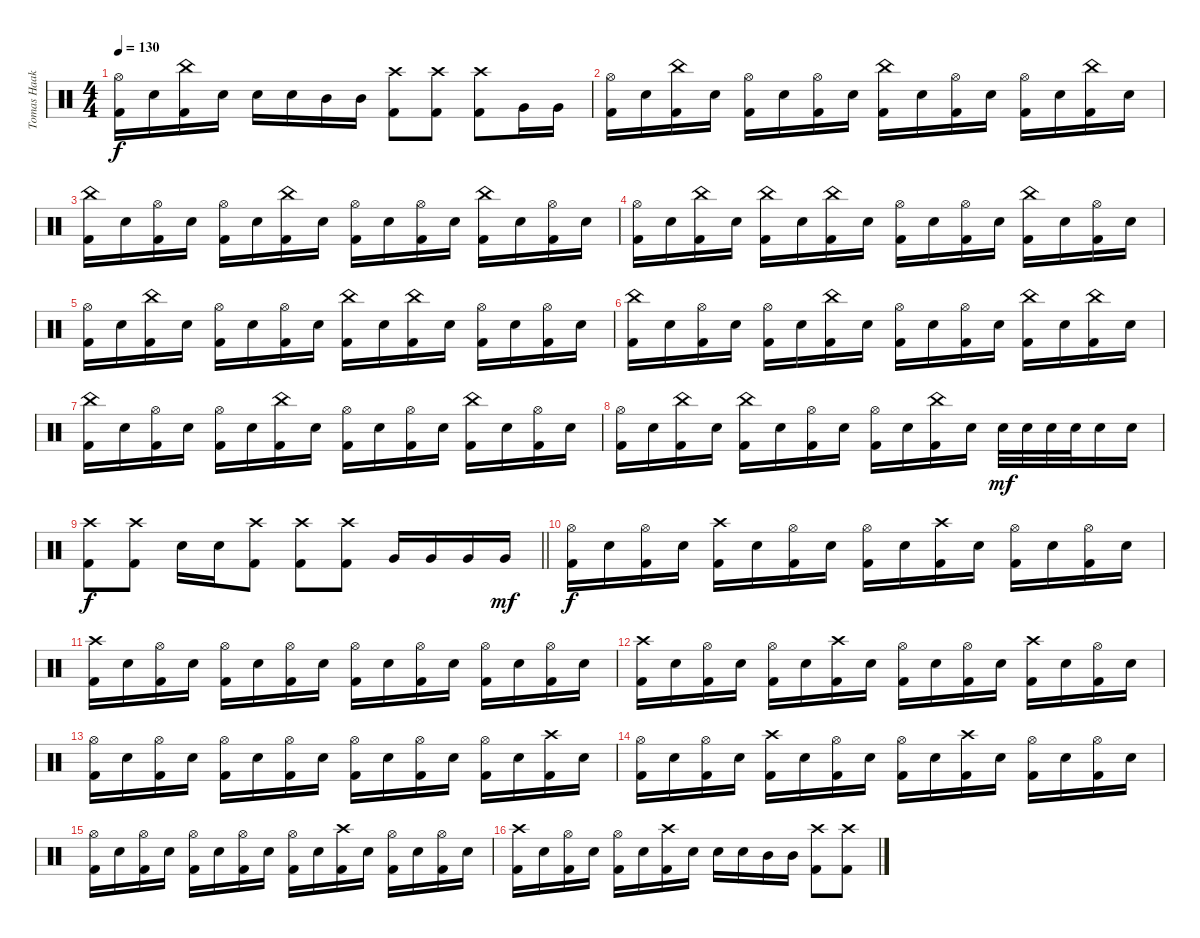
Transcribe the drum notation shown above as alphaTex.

\track ("Tomas Haake" "Tomas Haak") {instrument percussion}
\staff {score}
\articulation defaults
\ts (4 4)
\tempo 130
\clef neutral
\ks c
("Hi-Hat (open)" "Kick (hit) 2").16{dy f} "Electric Snare (hit)".16 ("China (hit)" "Kick (hit) 2").16 "Electric Snare (hit)".16 "Electric Snare (hit)".16 "Electric Snare (hit)".16 "Mid Tom (hit)".16 "Mid Tom (hit)".16 ("Crash high (hit)" "Kick (hit) 2").8 ("Crash high (hit)" "Kick (hit) 2").8 ("Crash high (hit)" "Kick (hit) 2").8 "Very Low Tom (hit)".16 "Very Low Tom (hit)".16 |
("Hi-Hat (open)" "Kick (hit) 2").16 "Electric Snare (hit)".16 ("China (hit)" "Kick (hit) 2").16 "Electric Snare (hit)".16 ("Hi-Hat (open)" "Kick (hit) 2").16 "Electric Snare (hit)".16 ("Hi-Hat (open)" "Kick (hit) 2").16 "Electric Snare (hit)".16 ("China (hit)" "Kick (hit) 2").16 "Electric Snare (hit)".16 ("Hi-Hat (open)" "Kick (hit) 2").16 "Electric Snare (hit)".16 ("Hi-Hat (open)" "Kick (hit) 2").16 "Electric Snare (hit)".16 ("China (hit)" "Kick (hit) 2").16 "Electric Snare (hit)".16 |
("China (hit)" "Kick (hit) 2").16 "Electric Snare (hit)".16 ("Hi-Hat (open)" "Kick (hit) 2").16 "Electric Snare (hit)".16 ("Hi-Hat (open)" "Kick (hit) 2").16 "Electric Snare (hit)".16 ("China (hit)" "Kick (hit) 2").16 "Electric Snare (hit)".16 ("Hi-Hat (open)" "Kick (hit) 2").16 "Electric Snare (hit)".16 ("Hi-Hat (open)" "Kick (hit) 2").16 "Electric Snare (hit)".16 ("China (hit)" "Kick (hit) 2").16 "Electric Snare (hit)".16 ("Hi-Hat (open)" "Kick (hit) 2").16 "Electric Snare (hit)".16 |
("Hi-Hat (open)" "Kick (hit) 2").16 "Electric Snare (hit)".16 ("China (hit)" "Kick (hit) 2").16 "Electric Snare (hit)".16 ("China (hit)" "Kick (hit) 2").16 "Electric Snare (hit)".16 ("China (hit)" "Kick (hit) 2").16 "Electric Snare (hit)".16 ("Hi-Hat (open)" "Kick (hit) 2").16 "Electric Snare (hit)".16 ("Hi-Hat (open)" "Kick (hit) 2").16 "Electric Snare (hit)".16 ("China (hit)" "Kick (hit) 2").16 "Electric Snare (hit)".16 ("Hi-Hat (open)" "Kick (hit) 2").16 "Electric Snare (hit)".16 |
("Hi-Hat (open)" "Kick (hit) 2").16 "Electric Snare (hit)".16 ("China (hit)" "Kick (hit) 2").16 "Electric Snare (hit)".16 ("Hi-Hat (open)" "Kick (hit) 2").16 "Electric Snare (hit)".16 ("Hi-Hat (open)" "Kick (hit) 2").16 "Electric Snare (hit)".16 ("China (hit)" "Kick (hit) 2").16 "Electric Snare (hit)".16 ("China (hit)" "Kick (hit) 2").16 "Electric Snare (hit)".16 ("Hi-Hat (open)" "Kick (hit) 2").16 "Electric Snare (hit)".16 ("Hi-Hat (open)" "Kick (hit) 2").16 "Electric Snare (hit)".16 |
("China (hit)" "Kick (hit) 2").16 "Electric Snare (hit)".16 ("Hi-Hat (open)" "Kick (hit) 2").16 "Electric Snare (hit)".16 ("Hi-Hat (open)" "Kick (hit) 2").16 "Electric Snare (hit)".16 ("China (hit)" "Kick (hit) 2").16 "Electric Snare (hit)".16 ("Hi-Hat (open)" "Kick (hit) 2").16 "Electric Snare (hit)".16 ("Hi-Hat (open)" "Kick (hit) 2").16 "Electric Snare (hit)".16 ("China (hit)" "Kick (hit) 2").16 "Electric Snare (hit)".16 ("China (hit)" "Kick (hit) 2").16 "Electric Snare (hit)".16 |
("China (hit)" "Kick (hit) 2").16 "Electric Snare (hit)".16 ("Hi-Hat (open)" "Kick (hit) 2").16 "Electric Snare (hit)".16 ("Hi-Hat (open)" "Kick (hit) 2").16 "Electric Snare (hit)".16 ("China (hit)" "Kick (hit) 2").16 "Electric Snare (hit)".16 ("Hi-Hat (open)" "Kick (hit) 2").16 "Electric Snare (hit)".16 ("Hi-Hat (open)" "Kick (hit) 2").16 "Electric Snare (hit)".16 ("China (hit)" "Kick (hit) 2").16 "Electric Snare (hit)".16 ("Hi-Hat (open)" "Kick (hit) 2").16 "Electric Snare (hit)".16 |
("Hi-Hat (open)" "Kick (hit) 2").16 "Electric Snare (hit)".16 ("China (hit)" "Kick (hit) 2").16 "Electric Snare (hit)".16 ("China (hit)" "Kick (hit) 2").16 "Electric Snare (hit)".16 ("Hi-Hat (open)" "Kick (hit) 2").16 "Electric Snare (hit)".16 ("Hi-Hat (open)" "Kick (hit) 2").16 "Electric Snare (hit)".16 ("China (hit)" "Kick (hit) 2").16 "Electric Snare (hit)".16 "Electric Snare (hit)".32{dy mf} "Electric Snare (hit)".32 "Electric Snare (hit)".32 "Electric Snare (hit)".32 "Electric Snare (hit)".16 "Electric Snare (hit)".16 |
\barLineRight lightlight
("Crash high (hit)" "Kick (hit) 2").8{dy f} ("Crash high (hit)" "Kick (hit) 2").8 "Electric Snare (hit)".16 "Electric Snare (hit)".16 ("Crash high (hit)" "Kick (hit) 2").8 ("Crash high (hit)" "Kick (hit) 2").8 ("Crash high (hit)" "Kick (hit) 2").8 "Very Low Tom (hit)".16 "Very Low Tom (hit)".16 "Very Low Tom (hit)".16 "Very Low Tom (hit)".16{dy mf} |
("Hi-Hat (open)" "Kick (hit) 2").16{dy f} "Electric Snare (hit)".16 ("Hi-Hat (open)" "Kick (hit) 2").16 "Electric Snare (hit)".16 ("Crash high (hit)" "Kick (hit) 2").16 "Electric Snare (hit)".16 ("Hi-Hat (open)" "Kick (hit) 2").16 "Electric Snare (hit)".16 ("Hi-Hat (open)" "Kick (hit) 2").16 "Electric Snare (hit)".16 ("Crash high (hit)" "Kick (hit) 2").16 "Electric Snare (hit)".16 ("Hi-Hat (open)" "Kick (hit) 2").16 "Electric Snare (hit)".16 ("Hi-Hat (open)" "Kick (hit) 2").16 "Electric Snare (hit)".16 |
("Crash high (hit)" "Kick (hit) 2").16 "Electric Snare (hit)".16 ("Hi-Hat (open)" "Kick (hit) 2").16 "Electric Snare (hit)".16 ("Hi-Hat (open)" "Kick (hit) 2").16 "Electric Snare (hit)".16 ("Hi-Hat (open)" "Kick (hit) 2").16 "Electric Snare (hit)".16 ("Hi-Hat (open)" "Kick (hit) 2").16 "Electric Snare (hit)".16 ("Hi-Hat (open)" "Kick (hit) 2").16 "Electric Snare (hit)".16 ("Hi-Hat (open)" "Kick (hit) 2").16 "Electric Snare (hit)".16 ("Hi-Hat (open)" "Kick (hit) 2").16 "Electric Snare (hit)".16 |
("Crash high (hit)" "Kick (hit) 2").16 "Electric Snare (hit)".16 ("Hi-Hat (open)" "Kick (hit) 2").16 "Electric Snare (hit)".16 ("Hi-Hat (open)" "Kick (hit) 2").16 "Electric Snare (hit)".16 ("Crash high (hit)" "Kick (hit) 2").16 "Electric Snare (hit)".16 ("Hi-Hat (open)" "Kick (hit) 2").16 "Electric Snare (hit)".16 ("Hi-Hat (open)" "Kick (hit) 2").16 "Electric Snare (hit)".16 ("Crash high (hit)" "Kick (hit) 2").16 "Electric Snare (hit)".16 ("Hi-Hat (open)" "Kick (hit) 2").16 "Electric Snare (hit)".16 |
("Hi-Hat (open)" "Kick (hit) 2").16 "Electric Snare (hit)".16 ("Hi-Hat (open)" "Kick (hit) 2").16 "Electric Snare (hit)".16 ("Hi-Hat (open)" "Kick (hit) 2").16 "Electric Snare (hit)".16 ("Hi-Hat (open)" "Kick (hit) 2").16 "Electric Snare (hit)".16 ("Hi-Hat (open)" "Kick (hit) 2").16 "Electric Snare (hit)".16 ("Hi-Hat (open)" "Kick (hit) 2").16 "Electric Snare (hit)".16 ("Hi-Hat (open)" "Kick (hit) 2").16 "Electric Snare (hit)".16 ("Crash high (hit)" "Kick (hit) 2").16 "Electric Snare (hit)".16 |
("Hi-Hat (open)" "Kick (hit) 2").16 "Electric Snare (hit)".16 ("Hi-Hat (open)" "Kick (hit) 2").16 "Electric Snare (hit)".16 ("Crash high (hit)" "Kick (hit) 2").16 "Electric Snare (hit)".16 ("Hi-Hat (open)" "Kick (hit) 2").16 "Electric Snare (hit)".16 ("Hi-Hat (open)" "Kick (hit) 2").16 "Electric Snare (hit)".16 ("Crash high (hit)" "Kick (hit) 2").16 "Electric Snare (hit)".16 ("Hi-Hat (open)" "Kick (hit) 2").16 "Electric Snare (hit)".16 ("Hi-Hat (open)" "Kick (hit) 2").16 "Electric Snare (hit)".16 |
("Hi-Hat (open)" "Kick (hit) 2").16 "Electric Snare (hit)".16 ("Hi-Hat (open)" "Kick (hit) 2").16 "Electric Snare (hit)".16 ("Hi-Hat (open)" "Kick (hit) 2").16 "Electric Snare (hit)".16 ("Hi-Hat (open)" "Kick (hit) 2").16 "Electric Snare (hit)".16 ("Hi-Hat (open)" "Kick (hit) 2").16 "Electric Snare (hit)".16 ("Crash high (hit)" "Kick (hit) 2").16 "Electric Snare (hit)".16 ("Hi-Hat (open)" "Kick (hit) 2").16 "Electric Snare (hit)".16 ("Hi-Hat (open)" "Kick (hit) 2").16 "Electric Snare (hit)".16 |
("Crash high (hit)" "Kick (hit) 2").16 "Electric Snare (hit)".16 ("Hi-Hat (open)" "Kick (hit) 2").16 "Electric Snare (hit)".16 ("Hi-Hat (open)" "Kick (hit) 2").16 "Electric Snare (hit)".16 ("Crash high (hit)" "Kick (hit) 2").16 "Electric Snare (hit)".16 "Electric Snare (hit)".16 "Electric Snare (hit)".16 "Mid Tom (hit)".16 "Mid Tom (hit)".16 ("Crash high (hit)" "Kick (hit) 2").8 ("Crash high (hit)" "Kick (hit) 2").8
